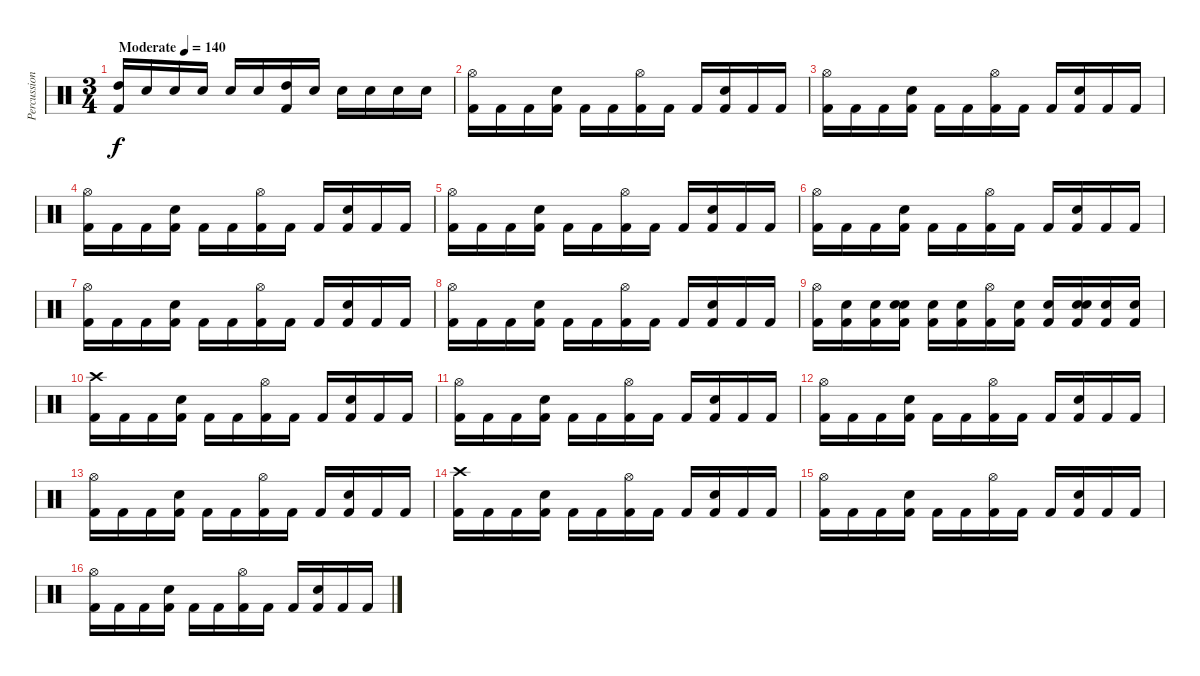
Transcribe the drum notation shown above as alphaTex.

\track ("Percussion" "Percussion") {instrument percussion}
\staff {score}
\articulation defaults
\ts (3 4)
\tempo (140 "Moderate")
\clef neutral
\ks c
("High Tom (hit)" "Kick (hit) 2").16{dy f} "Electric Snare (hit)".16 "Electric Snare (hit)".16 "Electric Snare (hit)".16 "Electric Snare (hit)".16 "Electric Snare (hit)".16 ("High Tom (hit)" "Kick (hit) 2").16 "Electric Snare (hit)".16 "Electric Snare (hit)".16 "Electric Snare (hit)".16 "Electric Snare (hit)".16 "Electric Snare (hit)".16 |
("Hi-Hat (open)" "Kick (hit) 2").16 "Kick (hit) 2".16 "Kick (hit) 2".16 ("Electric Snare (hit)" "Kick (hit) 2").16 "Kick (hit) 2".16 "Kick (hit) 2".16 ("Hi-Hat (open)" "Kick (hit) 2").16 "Kick (hit) 2".16 "Kick (hit) 2".16 ("Electric Snare (hit)" "Kick (hit) 2").16 "Kick (hit) 2".16 "Kick (hit) 2".16 |
("Hi-Hat (open)" "Kick (hit) 2").16 "Kick (hit) 2".16 "Kick (hit) 2".16 ("Electric Snare (hit)" "Kick (hit) 2").16 "Kick (hit) 2".16 "Kick (hit) 2".16 ("Hi-Hat (open)" "Kick (hit) 2").16 "Kick (hit) 2".16 "Kick (hit) 2".16 ("Electric Snare (hit)" "Kick (hit) 2").16 "Kick (hit) 2".16 "Kick (hit) 2".16 |
("Hi-Hat (open)" "Kick (hit) 2").16 "Kick (hit) 2".16 "Kick (hit) 2".16 ("Electric Snare (hit)" "Kick (hit) 2").16 "Kick (hit) 2".16 "Kick (hit) 2".16 ("Hi-Hat (open)" "Kick (hit) 2").16 "Kick (hit) 2".16 "Kick (hit) 2".16 ("Electric Snare (hit)" "Kick (hit) 2").16 "Kick (hit) 2".16 "Kick (hit) 2".16 |
("Hi-Hat (open)" "Kick (hit) 2").16 "Kick (hit) 2".16 "Kick (hit) 2".16 ("Electric Snare (hit)" "Kick (hit) 2").16 "Kick (hit) 2".16 "Kick (hit) 2".16 ("Hi-Hat (open)" "Kick (hit) 2").16 "Kick (hit) 2".16 "Kick (hit) 2".16 ("Electric Snare (hit)" "Kick (hit) 2").16 "Kick (hit) 2".16 "Kick (hit) 2".16 |
("Hi-Hat (open)" "Kick (hit) 2").16 "Kick (hit) 2".16 "Kick (hit) 2".16 ("Electric Snare (hit)" "Kick (hit) 2").16 "Kick (hit) 2".16 "Kick (hit) 2".16 ("Hi-Hat (open)" "Kick (hit) 2").16 "Kick (hit) 2".16 "Kick (hit) 2".16 ("Electric Snare (hit)" "Kick (hit) 2").16 "Kick (hit) 2".16 "Kick (hit) 2".16 |
("Hi-Hat (open)" "Kick (hit) 2").16 "Kick (hit) 2".16 "Kick (hit) 2".16 ("Electric Snare (hit)" "Kick (hit) 2").16 "Kick (hit) 2".16 "Kick (hit) 2".16 ("Hi-Hat (open)" "Kick (hit) 2").16 "Kick (hit) 2".16 "Kick (hit) 2".16 ("Electric Snare (hit)" "Kick (hit) 2").16 "Kick (hit) 2".16 "Kick (hit) 2".16 |
("Hi-Hat (open)" "Kick (hit) 2").16 "Kick (hit) 2".16 "Kick (hit) 2".16 ("Electric Snare (hit)" "Kick (hit) 2").16 "Kick (hit) 2".16 "Kick (hit) 2".16 ("Hi-Hat (open)" "Kick (hit) 2").16 "Kick (hit) 2".16 "Kick (hit) 2".16 ("Electric Snare (hit)" "Kick (hit) 2").16 "Kick (hit) 2".16 "Kick (hit) 2".16 |
("Hi-Hat (open)" "Kick (hit) 2").16 ("Electric Snare (hit)" "Kick (hit) 2").16 ("Electric Snare (hit)" "Kick (hit) 2").16 ("Electric Snare (hit)" "Electric Snare (hit)" "Kick (hit) 2").16 ("Electric Snare (hit)" "Kick (hit) 2").16 ("Electric Snare (hit)" "Kick (hit) 2").16 ("Hi-Hat (open)" "Kick (hit) 2").16 ("Electric Snare (hit)" "Kick (hit) 2").16 ("Electric Snare (hit)" "Kick (hit) 2").16 ("Electric Snare (hit)" "Electric Snare (hit)" "Kick (hit) 2").16 ("Electric Snare (hit)" "Kick (hit) 2").16 ("Electric Snare (hit)" "Kick (hit) 2").16 |
("Crash high (hit)" "Kick (hit) 2").16 "Kick (hit) 2".16 "Kick (hit) 2".16 ("Electric Snare (hit)" "Kick (hit) 2").16 "Kick (hit) 2".16 "Kick (hit) 2".16 ("Hi-Hat (open)" "Kick (hit) 2").16 "Kick (hit) 2".16 "Kick (hit) 2".16 ("Electric Snare (hit)" "Kick (hit) 2").16 "Kick (hit) 2".16 "Kick (hit) 2".16 |
("Hi-Hat (open)" "Kick (hit) 2").16 "Kick (hit) 2".16 "Kick (hit) 2".16 ("Electric Snare (hit)" "Kick (hit) 2").16 "Kick (hit) 2".16 "Kick (hit) 2".16 ("Hi-Hat (open)" "Kick (hit) 2").16 "Kick (hit) 2".16 "Kick (hit) 2".16 ("Electric Snare (hit)" "Kick (hit) 2").16 "Kick (hit) 2".16 "Kick (hit) 2".16 |
("Hi-Hat (open)" "Kick (hit) 2").16 "Kick (hit) 2".16 "Kick (hit) 2".16 ("Electric Snare (hit)" "Kick (hit) 2").16 "Kick (hit) 2".16 "Kick (hit) 2".16 ("Hi-Hat (open)" "Kick (hit) 2").16 "Kick (hit) 2".16 "Kick (hit) 2".16 ("Electric Snare (hit)" "Kick (hit) 2").16 "Kick (hit) 2".16 "Kick (hit) 2".16 |
("Hi-Hat (open)" "Kick (hit) 2").16 "Kick (hit) 2".16 "Kick (hit) 2".16 ("Electric Snare (hit)" "Kick (hit) 2").16 "Kick (hit) 2".16 "Kick (hit) 2".16 ("Hi-Hat (open)" "Kick (hit) 2").16 "Kick (hit) 2".16 "Kick (hit) 2".16 ("Electric Snare (hit)" "Kick (hit) 2").16 "Kick (hit) 2".16 "Kick (hit) 2".16 |
("Crash high (hit)" "Kick (hit) 2").16 "Kick (hit) 2".16 "Kick (hit) 2".16 ("Electric Snare (hit)" "Kick (hit) 2").16 "Kick (hit) 2".16 "Kick (hit) 2".16 ("Hi-Hat (open)" "Kick (hit) 2").16 "Kick (hit) 2".16 "Kick (hit) 2".16 ("Electric Snare (hit)" "Kick (hit) 2").16 "Kick (hit) 2".16 "Kick (hit) 2".16 |
("Hi-Hat (open)" "Kick (hit) 2").16 "Kick (hit) 2".16 "Kick (hit) 2".16 ("Electric Snare (hit)" "Kick (hit) 2").16 "Kick (hit) 2".16 "Kick (hit) 2".16 ("Hi-Hat (open)" "Kick (hit) 2").16 "Kick (hit) 2".16 "Kick (hit) 2".16 ("Electric Snare (hit)" "Kick (hit) 2").16 "Kick (hit) 2".16 "Kick (hit) 2".16 |
("Hi-Hat (open)" "Kick (hit) 2").16 "Kick (hit) 2".16 "Kick (hit) 2".16 ("Electric Snare (hit)" "Kick (hit) 2").16 "Kick (hit) 2".16 "Kick (hit) 2".16 ("Hi-Hat (open)" "Kick (hit) 2").16 "Kick (hit) 2".16 "Kick (hit) 2".16 ("Electric Snare (hit)" "Kick (hit) 2").16 "Kick (hit) 2".16 "Kick (hit) 2".16
